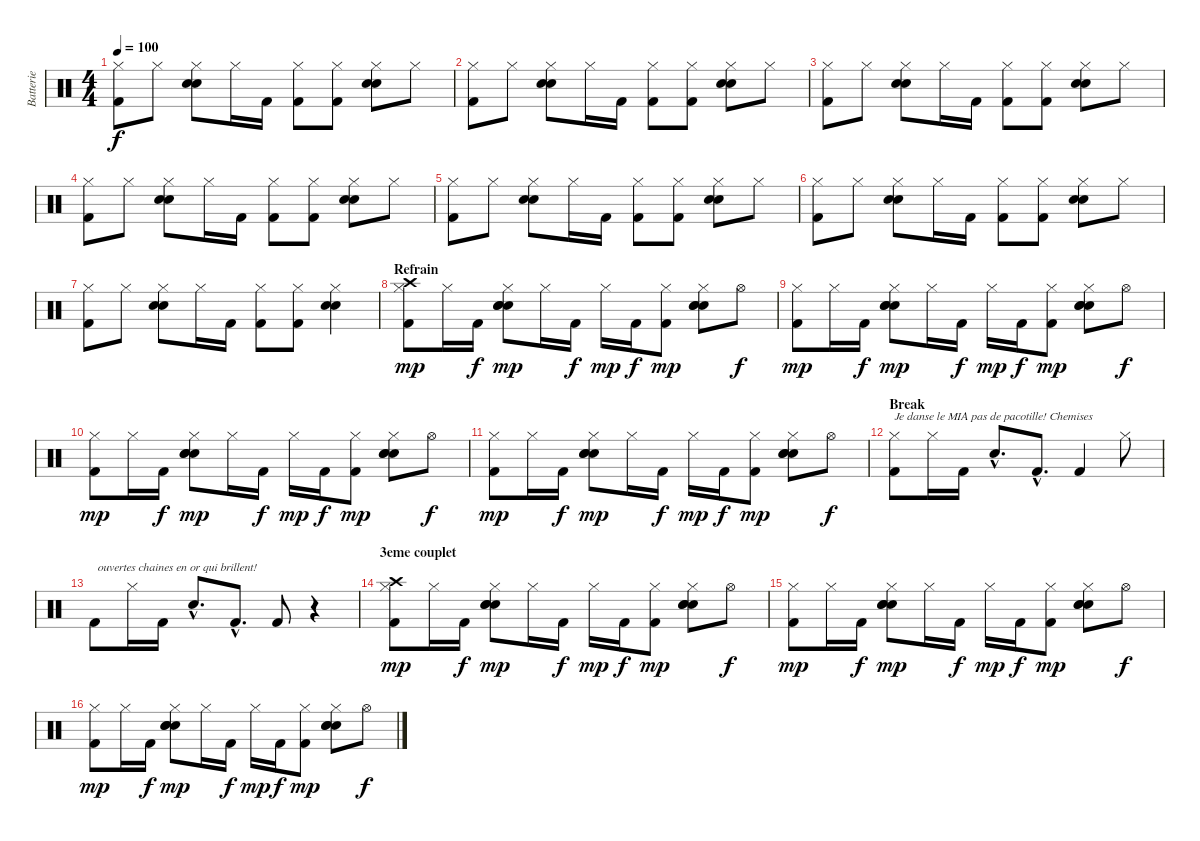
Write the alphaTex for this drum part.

\track ("Batterie" "Batterie") {instrument percussion}
\staff {score}
\articulation defaults
\ts (4 4)
\tempo 100
\clef neutral
\ks c
("Kick (hit) 2" "Hi-Hat (closed)").8{dy f} "Hi-Hat (closed)".8 ("Hand Clap (hit)" "Snare (hit) 2" "Hi-Hat (closed)").8 "Hi-Hat (closed)".16 "Kick (hit) 2".16 ("Kick (hit) 2" "Hi-Hat (closed)").8 ("Kick (hit) 2" "Hi-Hat (closed)").8 ("Hand Clap (hit)" "Snare (hit) 2" "Hi-Hat (closed)").8 "Hi-Hat (closed)".8 |
("Kick (hit) 2" "Hi-Hat (closed)").8 "Hi-Hat (closed)".8 ("Hand Clap (hit)" "Snare (hit) 2" "Hi-Hat (closed)").8 "Hi-Hat (closed)".16 "Kick (hit) 2".16 ("Kick (hit) 2" "Hi-Hat (closed)").8 ("Kick (hit) 2" "Hi-Hat (closed)").8 ("Hand Clap (hit)" "Snare (hit) 2" "Hi-Hat (closed)").8 "Hi-Hat (closed)".8 |
("Kick (hit) 2" "Hi-Hat (closed)").8 "Hi-Hat (closed)".8 ("Hand Clap (hit)" "Snare (hit) 2" "Hi-Hat (closed)").8 "Hi-Hat (closed)".16 "Kick (hit) 2".16 ("Kick (hit) 2" "Hi-Hat (closed)").8 ("Kick (hit) 2" "Hi-Hat (closed)").8 ("Hand Clap (hit)" "Snare (hit) 2" "Hi-Hat (closed)").8 "Hi-Hat (closed)".8 |
("Kick (hit) 2" "Hi-Hat (closed)").8 "Hi-Hat (closed)".8 ("Hand Clap (hit)" "Snare (hit) 2" "Hi-Hat (closed)").8 "Hi-Hat (closed)".16 "Kick (hit) 2".16 ("Kick (hit) 2" "Hi-Hat (closed)").8 ("Kick (hit) 2" "Hi-Hat (closed)").8 ("Hand Clap (hit)" "Snare (hit) 2" "Hi-Hat (closed)").8 "Hi-Hat (closed)".8 |
("Kick (hit) 2" "Hi-Hat (closed)").8 "Hi-Hat (closed)".8 ("Hand Clap (hit)" "Snare (hit) 2" "Hi-Hat (closed)").8 "Hi-Hat (closed)".16 "Kick (hit) 2".16 ("Kick (hit) 2" "Hi-Hat (closed)").8 ("Kick (hit) 2" "Hi-Hat (closed)").8 ("Hand Clap (hit)" "Snare (hit) 2" "Hi-Hat (closed)").8 "Hi-Hat (closed)".8 |
("Kick (hit) 2" "Hi-Hat (closed)").8 "Hi-Hat (closed)".8 ("Hand Clap (hit)" "Snare (hit) 2" "Hi-Hat (closed)").8 "Hi-Hat (closed)".16 "Kick (hit) 2".16 ("Kick (hit) 2" "Hi-Hat (closed)").8 ("Kick (hit) 2" "Hi-Hat (closed)").8 ("Hand Clap (hit)" "Snare (hit) 2" "Hi-Hat (closed)").8 "Hi-Hat (closed)".8 |
("Kick (hit) 2" "Hi-Hat (closed)").8 "Hi-Hat (closed)".8 ("Hand Clap (hit)" "Snare (hit) 2" "Hi-Hat (closed)").8 "Hi-Hat (closed)".16 "Kick (hit) 2".16 ("Kick (hit) 2" "Hi-Hat (closed)").8 ("Kick (hit) 2" "Hi-Hat (closed)").8 ("Hand Clap (hit)" "Snare (hit) 2" "Hi-Hat (closed)").4 |
\section ("" "Refrain")
("Crash high (hit)" "Kick (hit) 2" "Hi-Hat (closed)").8{dy mp} "Hi-Hat (closed)".16 "Kick (hit) 2".16{dy f} ("Snare (hit) 2" "Snare (hit) 2" "Electric Snare (hit)" "Hi-Hat (closed)").8{dy mp} "Hi-Hat (closed)".16 "Kick (hit) 2".16{dy f} "Hi-Hat (closed)".16{dy mp} "Kick (hit) 2".16{dy f} ("Kick (hit) 2" "Hi-Hat (closed)").8{dy mp} ("Snare (hit) 2" "Snare (hit) 2" "Electric Snare (hit)" "Hi-Hat (closed)").8 "Hi-Hat (open)".8{dy f} |
("Kick (hit) 2" "Hi-Hat (closed)").8{dy mp} "Hi-Hat (closed)".16 "Kick (hit) 2".16{dy f} ("Snare (hit) 2" "Snare (hit) 2" "Electric Snare (hit)" "Hi-Hat (closed)").8{dy mp} "Hi-Hat (closed)".16 "Kick (hit) 2".16{dy f} "Hi-Hat (closed)".16{dy mp} "Kick (hit) 2".16{dy f} ("Kick (hit) 2" "Hi-Hat (closed)").8{dy mp} ("Snare (hit) 2" "Snare (hit) 2" "Electric Snare (hit)" "Hi-Hat (closed)").8 "Hi-Hat (open)".8{dy f} |
("Kick (hit) 2" "Hi-Hat (closed)").8{dy mp} "Hi-Hat (closed)".16 "Kick (hit) 2".16{dy f} ("Snare (hit) 2" "Snare (hit) 2" "Electric Snare (hit)" "Hi-Hat (closed)").8{dy mp} "Hi-Hat (closed)".16 "Kick (hit) 2".16{dy f} "Hi-Hat (closed)".16{dy mp} "Kick (hit) 2".16{dy f} ("Kick (hit) 2" "Hi-Hat (closed)").8{dy mp} ("Snare (hit) 2" "Snare (hit) 2" "Electric Snare (hit)" "Hi-Hat (closed)").8 "Hi-Hat (open)".8{dy f} |
("Kick (hit) 2" "Hi-Hat (closed)").8{dy mp} "Hi-Hat (closed)".16 "Kick (hit) 2".16{dy f} ("Snare (hit) 2" "Snare (hit) 2" "Electric Snare (hit)" "Hi-Hat (closed)").8{dy mp} "Hi-Hat (closed)".16 "Kick (hit) 2".16{dy f} "Hi-Hat (closed)".16{dy mp} "Kick (hit) 2".16{dy f} ("Kick (hit) 2" "Hi-Hat (closed)").8{dy mp} ("Snare (hit) 2" "Snare (hit) 2" "Electric Snare (hit)" "Hi-Hat (closed)").8 "Hi-Hat (open)".8{dy f} |
\section ("" "Break")
("Kick (hit) 2" "Hi-Hat (closed)").8{txt "Je danse le MIA pas de pacotille! Chemises"} "Hi-Hat (closed)".16 "Kick (hit) 2".16 "Electric Snare (hit)"{hac}.8{d} "Kick (hit) 2"{hac}.8{d} "Kick (hit) 2".4 "Hi-Hat (closed)".8 |
"Kick (hit) 2".8{txt " ouvertes chaines en or qui brillent!"} "Hi-Hat (closed)".16 "Kick (hit) 2".16 "Electric Snare (hit)"{hac}.8{d} "Kick (hit) 2"{hac}.8{d} "Kick (hit) 2".8 r.4 |
\section ("" "3eme couplet")
("Crash high (hit)" "Kick (hit) 2" "Hi-Hat (closed)").8{dy mp} "Hi-Hat (closed)".16 "Kick (hit) 2".16{dy f} ("Snare (hit) 2" "Snare (hit) 2" "Electric Snare (hit)" "Hi-Hat (closed)").8{dy mp} "Hi-Hat (closed)".16 "Kick (hit) 2".16{dy f} "Hi-Hat (closed)".16{dy mp} "Kick (hit) 2".16{dy f} ("Kick (hit) 2" "Hi-Hat (closed)").8{dy mp} ("Snare (hit) 2" "Snare (hit) 2" "Electric Snare (hit)" "Hi-Hat (closed)").8 "Hi-Hat (open)".8{dy f} |
("Kick (hit) 2" "Hi-Hat (closed)").8{dy mp} "Hi-Hat (closed)".16 "Kick (hit) 2".16{dy f} ("Snare (hit) 2" "Snare (hit) 2" "Electric Snare (hit)" "Hi-Hat (closed)").8{dy mp} "Hi-Hat (closed)".16 "Kick (hit) 2".16{dy f} "Hi-Hat (closed)".16{dy mp} "Kick (hit) 2".16{dy f} ("Kick (hit) 2" "Hi-Hat (closed)").8{dy mp} ("Snare (hit) 2" "Snare (hit) 2" "Electric Snare (hit)" "Hi-Hat (closed)").8 "Hi-Hat (open)".8{dy f} |
("Kick (hit) 2" "Hi-Hat (closed)").8{dy mp} "Hi-Hat (closed)".16 "Kick (hit) 2".16{dy f} ("Snare (hit) 2" "Snare (hit) 2" "Electric Snare (hit)" "Hi-Hat (closed)").8{dy mp} "Hi-Hat (closed)".16 "Kick (hit) 2".16{dy f} "Hi-Hat (closed)".16{dy mp} "Kick (hit) 2".16{dy f} ("Kick (hit) 2" "Hi-Hat (closed)").8{dy mp} ("Snare (hit) 2" "Snare (hit) 2" "Electric Snare (hit)" "Hi-Hat (closed)").8 "Hi-Hat (open)".8{dy f}
